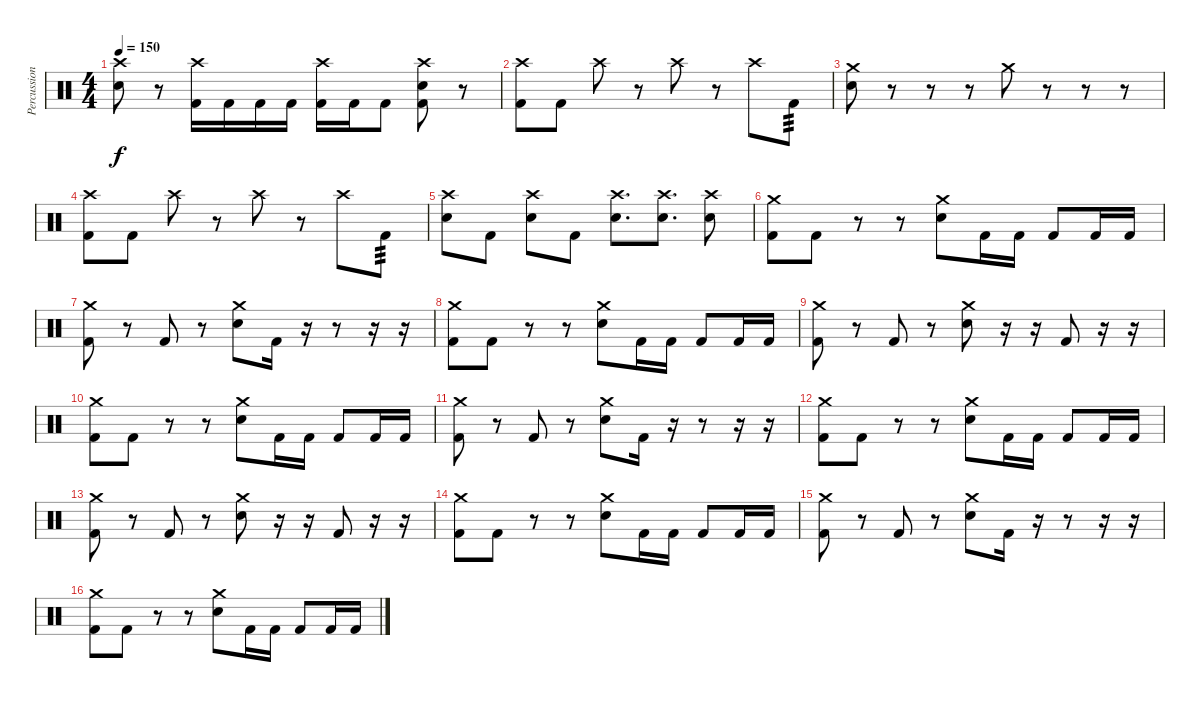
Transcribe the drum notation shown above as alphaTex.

\track ("Percussion" "Percussion") {instrument percussion}
\staff {score}
\articulation defaults
\ts (4 4)
\tempo 150
\clef neutral
\ks c
("Crash high (hit)" "Snare (hit) 2").8{dy f} r.8 ("Crash high (hit)" "Kick (hit) 2").16 "Kick (hit) 2".16 "Kick (hit) 2".16 "Kick (hit) 2".16 ("Crash high (hit)" "Kick (hit) 2").16 "Kick (hit) 2".16 "Kick (hit) 2".8 ("Crash high (hit)" "Snare (hit) 2" "Kick (hit) 2").8 r.8 |
("Crash high (hit)" "Kick (hit) 2").8 "Kick (hit) 2".8 "Crash high (hit)".8 r.8 "Crash high (hit)".8 r.8 "Crash high (hit)".8 "Kick (hit) 2".8{tp 3} |
("Crash medium (hit)" "Snare (hit) 2").8 r.8 r.8 r.8 "Crash medium (hit)".8 r.8 r.8 r.8 |
("Crash high (hit)" "Kick (hit) 2").8 "Kick (hit) 2".8 "Crash high (hit)".8 r.8 "Crash high (hit)".8 r.8 "Crash high (hit)".8 "Kick (hit) 2".8{tp 3} |
("Crash high (hit)" "Snare (hit) 2").8 "Kick (hit) 2".8 ("Crash high (hit)" "Snare (hit) 2").8 "Kick (hit) 2".8 ("Crash high (hit)" "Snare (hit) 2").8{d} ("Crash high (hit)" "Snare (hit) 2").8{d} ("Crash high (hit)" "Snare (hit) 2").8 |
("Crash medium (hit)" "Kick (hit) 2").8 "Kick (hit) 2".8 r.8 r.8 ("Crash medium (hit)" "Snare (hit) 2").8 "Kick (hit) 2".16 "Kick (hit) 2".16 "Kick (hit) 2".8 "Kick (hit) 2".16 "Kick (hit) 2".16 |
("Crash medium (hit)" "Kick (hit) 2").8 r.8 "Kick (hit) 2".8 r.8 ("Crash medium (hit)" "Snare (hit) 2").8 "Kick (hit) 2".16 r.16 r.8 r.16 r.16 |
("Crash medium (hit)" "Kick (hit) 2").8 "Kick (hit) 2".8 r.8 r.8 ("Crash medium (hit)" "Snare (hit) 2").8 "Kick (hit) 2".16 "Kick (hit) 2".16 "Kick (hit) 2".8 "Kick (hit) 2".16 "Kick (hit) 2".16 |
("Crash medium (hit)" "Kick (hit) 2").8 r.8 "Kick (hit) 2".8 r.8 ("Crash medium (hit)" "Snare (hit) 2").8 r.16 r.16 "Kick (hit) 2".8 r.16 r.16 |
("Crash medium (hit)" "Kick (hit) 2").8 "Kick (hit) 2".8 r.8 r.8 ("Crash medium (hit)" "Snare (hit) 2").8 "Kick (hit) 2".16 "Kick (hit) 2".16 "Kick (hit) 2".8 "Kick (hit) 2".16 "Kick (hit) 2".16 |
("Crash medium (hit)" "Kick (hit) 2").8 r.8 "Kick (hit) 2".8 r.8 ("Crash medium (hit)" "Snare (hit) 2").8 "Kick (hit) 2".16 r.16 r.8 r.16 r.16 |
("Crash medium (hit)" "Kick (hit) 2").8 "Kick (hit) 2".8 r.8 r.8 ("Crash medium (hit)" "Snare (hit) 2").8 "Kick (hit) 2".16 "Kick (hit) 2".16 "Kick (hit) 2".8 "Kick (hit) 2".16 "Kick (hit) 2".16 |
("Crash medium (hit)" "Kick (hit) 2").8 r.8 "Kick (hit) 2".8 r.8 ("Crash medium (hit)" "Snare (hit) 2").8 r.16 r.16 "Kick (hit) 2".8 r.16 r.16 |
("Crash medium (hit)" "Kick (hit) 2").8 "Kick (hit) 2".8 r.8 r.8 ("Crash medium (hit)" "Snare (hit) 2").8 "Kick (hit) 2".16 "Kick (hit) 2".16 "Kick (hit) 2".8 "Kick (hit) 2".16 "Kick (hit) 2".16 |
("Crash medium (hit)" "Kick (hit) 2").8 r.8 "Kick (hit) 2".8 r.8 ("Crash medium (hit)" "Snare (hit) 2").8 "Kick (hit) 2".16 r.16 r.8 r.16 r.16 |
("Crash medium (hit)" "Kick (hit) 2").8 "Kick (hit) 2".8 r.8 r.8 ("Crash medium (hit)" "Snare (hit) 2").8 "Kick (hit) 2".16 "Kick (hit) 2".16 "Kick (hit) 2".8 "Kick (hit) 2".16 "Kick (hit) 2".16
